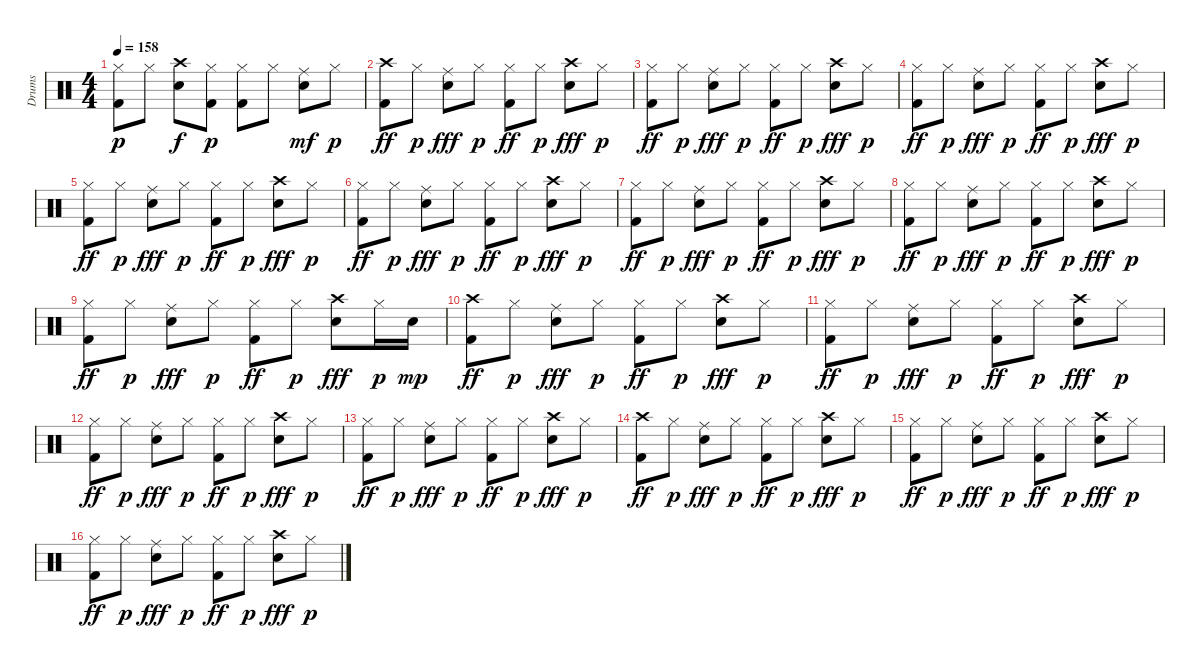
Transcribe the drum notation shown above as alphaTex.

\track ("Drums" "Drums") {instrument percussion}
\staff {score}
\articulation defaults
\ts (4 4)
\tempo 158
\clef neutral
\ks c
("Hi-Hat (closed)" "Kick (hit) 2").8{dy p} "Hi-Hat (closed)".8 ("Crash high (hit)" "Snare (hit) 2").8{dy f} ("Hi-Hat (closed)" "Kick (hit) 2").8{dy p} ("Hi-Hat (closed)" "Kick (hit) 2").8 "Hi-Hat (closed)".8 ("Ride (middle)" "Snare (hit) 2").8{dy mf} "Hi-Hat (closed)".8{dy p} |
("Crash high (hit)" "Kick (hit) 2").8{dy ff} "Hi-Hat (closed)".8{dy p} ("Ride (middle)" "Snare (hit) 2").8{dy fff} "Hi-Hat (closed)".8{dy p} ("Hi-Hat (closed)" "Kick (hit) 2").8{dy ff} "Hi-Hat (closed)".8{dy p} ("Crash high (hit)" "Snare (hit) 2").8{dy fff} "Hi-Hat (closed)".8{dy p} |
("Hi-Hat (closed)" "Kick (hit) 2").8{dy ff} "Hi-Hat (closed)".8{dy p} ("Ride (middle)" "Snare (hit) 2").8{dy fff} "Hi-Hat (closed)".8{dy p} ("Hi-Hat (closed)" "Kick (hit) 2").8{dy ff} "Hi-Hat (closed)".8{dy p} ("Crash high (hit)" "Snare (hit) 2").8{dy fff} "Hi-Hat (closed)".8{dy p} |
("Hi-Hat (closed)" "Kick (hit) 2").8{dy ff} "Hi-Hat (closed)".8{dy p} ("Ride (middle)" "Snare (hit) 2").8{dy fff} "Hi-Hat (closed)".8{dy p} ("Hi-Hat (closed)" "Kick (hit) 2").8{dy ff} "Hi-Hat (closed)".8{dy p} ("Crash high (hit)" "Snare (hit) 2").8{dy fff} "Hi-Hat (closed)".8{dy p} |
("Hi-Hat (closed)" "Kick (hit) 2").8{dy ff} "Hi-Hat (closed)".8{dy p} ("Ride (middle)" "Snare (hit) 2").8{dy fff} "Hi-Hat (closed)".8{dy p} ("Hi-Hat (closed)" "Kick (hit) 2").8{dy ff} "Hi-Hat (closed)".8{dy p} ("Crash high (hit)" "Snare (hit) 2").8{dy fff} "Hi-Hat (closed)".8{dy p} |
("Hi-Hat (closed)" "Kick (hit) 2").8{dy ff} "Hi-Hat (closed)".8{dy p} ("Ride (middle)" "Snare (hit) 2").8{dy fff} "Hi-Hat (closed)".8{dy p} ("Hi-Hat (closed)" "Kick (hit) 2").8{dy ff} "Hi-Hat (closed)".8{dy p} ("Crash high (hit)" "Snare (hit) 2").8{dy fff} "Hi-Hat (closed)".8{dy p} |
("Hi-Hat (closed)" "Kick (hit) 2").8{dy ff} "Hi-Hat (closed)".8{dy p} ("Ride (middle)" "Snare (hit) 2").8{dy fff} "Hi-Hat (closed)".8{dy p} ("Hi-Hat (closed)" "Kick (hit) 2").8{dy ff} "Hi-Hat (closed)".8{dy p} ("Crash high (hit)" "Snare (hit) 2").8{dy fff} "Hi-Hat (closed)".8{dy p} |
("Hi-Hat (closed)" "Kick (hit) 2").8{dy ff} "Hi-Hat (closed)".8{dy p} ("Ride (middle)" "Snare (hit) 2").8{dy fff} "Hi-Hat (closed)".8{dy p} ("Hi-Hat (closed)" "Kick (hit) 2").8{dy ff} "Hi-Hat (closed)".8{dy p} ("Crash high (hit)" "Snare (hit) 2").8{dy fff} "Hi-Hat (closed)".8{dy p} |
("Hi-Hat (closed)" "Kick (hit) 2").8{dy ff} "Hi-Hat (closed)".8{dy p} ("Ride (middle)" "Snare (hit) 2").8{dy fff} "Hi-Hat (closed)".8{dy p} ("Hi-Hat (closed)" "Kick (hit) 2").8{dy ff} "Hi-Hat (closed)".8{dy p} ("Crash high (hit)" "Snare (hit) 2").8{dy fff} "Hi-Hat (closed)".16{dy p} "Snare (hit) 2".16{dy mp} |
("Crash high (hit)" "Kick (hit) 2").8{dy ff} "Hi-Hat (closed)".8{dy p} ("Ride (middle)" "Snare (hit) 2").8{dy fff} "Hi-Hat (closed)".8{dy p} ("Hi-Hat (closed)" "Kick (hit) 2").8{dy ff} "Hi-Hat (closed)".8{dy p} ("Crash high (hit)" "Snare (hit) 2").8{dy fff} "Hi-Hat (closed)".8{dy p} |
("Hi-Hat (closed)" "Kick (hit) 2").8{dy ff} "Hi-Hat (closed)".8{dy p} ("Ride (middle)" "Snare (hit) 2").8{dy fff} "Hi-Hat (closed)".8{dy p} ("Hi-Hat (closed)" "Kick (hit) 2").8{dy ff} "Hi-Hat (closed)".8{dy p} ("Crash high (hit)" "Snare (hit) 2").8{dy fff} "Hi-Hat (closed)".8{dy p} |
("Hi-Hat (closed)" "Kick (hit) 2").8{dy ff} "Hi-Hat (closed)".8{dy p} ("Ride (middle)" "Snare (hit) 2").8{dy fff} "Hi-Hat (closed)".8{dy p} ("Hi-Hat (closed)" "Kick (hit) 2").8{dy ff} "Hi-Hat (closed)".8{dy p} ("Crash high (hit)" "Snare (hit) 2").8{dy fff} "Hi-Hat (closed)".8{dy p} |
("Hi-Hat (closed)" "Kick (hit) 2").8{dy ff} "Hi-Hat (closed)".8{dy p} ("Ride (middle)" "Snare (hit) 2").8{dy fff} "Hi-Hat (closed)".8{dy p} ("Hi-Hat (closed)" "Kick (hit) 2").8{dy ff} "Hi-Hat (closed)".8{dy p} ("Crash high (hit)" "Snare (hit) 2").8{dy fff} "Hi-Hat (closed)".8{dy p} |
("Crash high (hit)" "Kick (hit) 2").8{dy ff} "Hi-Hat (closed)".8{dy p} ("Ride (middle)" "Snare (hit) 2").8{dy fff} "Hi-Hat (closed)".8{dy p} ("Hi-Hat (closed)" "Kick (hit) 2").8{dy ff} "Hi-Hat (closed)".8{dy p} ("Crash high (hit)" "Snare (hit) 2").8{dy fff} "Hi-Hat (closed)".8{dy p} |
("Hi-Hat (closed)" "Kick (hit) 2").8{dy ff} "Hi-Hat (closed)".8{dy p} ("Ride (middle)" "Snare (hit) 2").8{dy fff} "Hi-Hat (closed)".8{dy p} ("Hi-Hat (closed)" "Kick (hit) 2").8{dy ff} "Hi-Hat (closed)".8{dy p} ("Crash high (hit)" "Snare (hit) 2").8{dy fff} "Hi-Hat (closed)".8{dy p} |
("Hi-Hat (closed)" "Kick (hit) 2").8{dy ff} "Hi-Hat (closed)".8{dy p} ("Ride (middle)" "Snare (hit) 2").8{dy fff} "Hi-Hat (closed)".8{dy p} ("Hi-Hat (closed)" "Kick (hit) 2").8{dy ff} "Hi-Hat (closed)".8{dy p} ("Crash high (hit)" "Snare (hit) 2").8{dy fff} "Hi-Hat (closed)".8{dy p}
